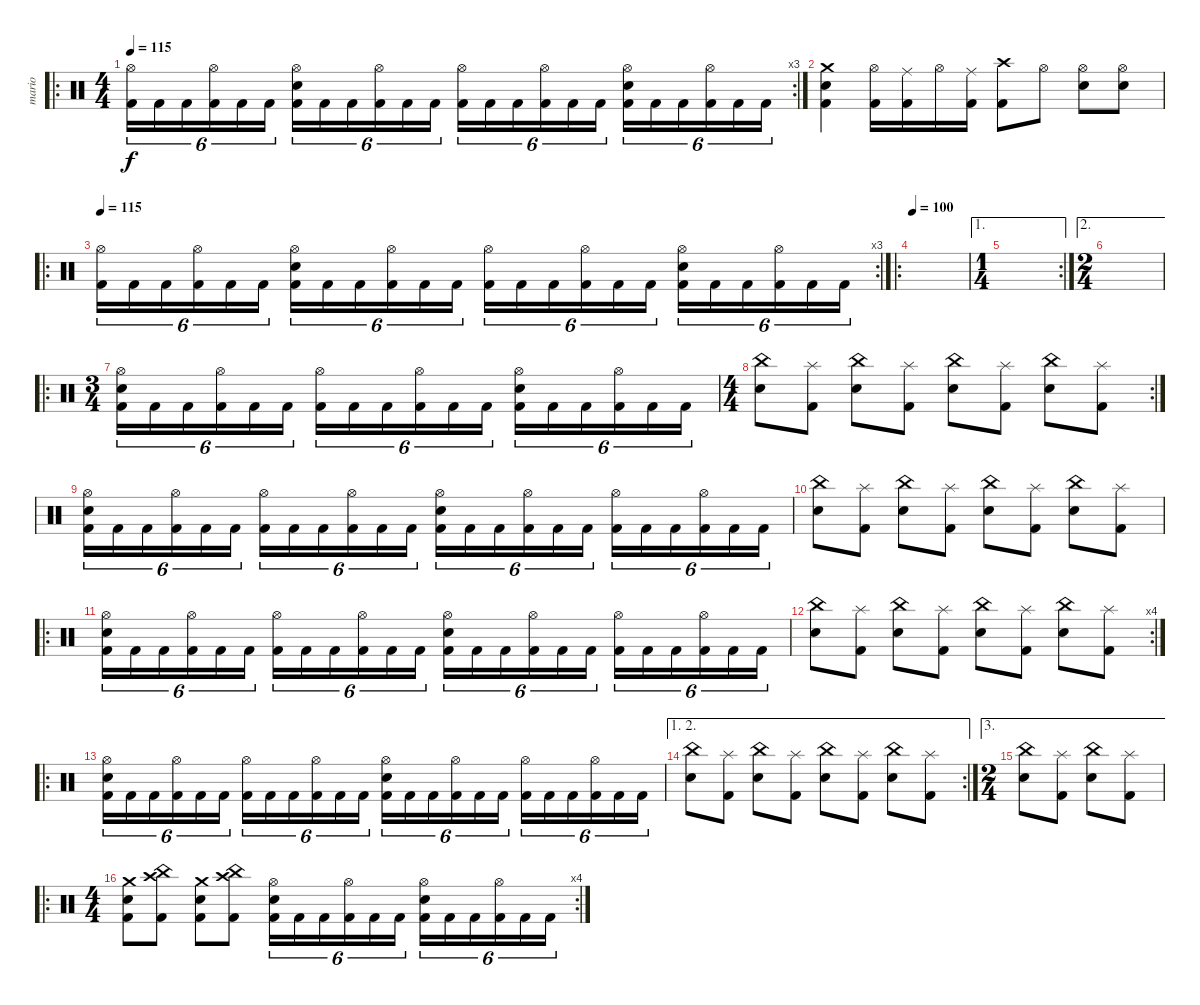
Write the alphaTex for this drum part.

\track ("mario" "mario") {instrument percussion}
\staff {score}
\articulation defaults
\ro
\rc 3
\ts (4 4)
\tempo 115
\clef neutral
\ks c
("Hi-Hat (open)" "Kick (hit) 2").16{tu (6 4) dy f volume 12} "Kick (hit) 2".16{tu (6 4)} "Kick (hit) 2".16{tu (6 4)} ("Hi-Hat (open)" "Kick (hit) 2").16{tu (6 4)} "Kick (hit) 2".16{tu (6 4)} "Kick (hit) 2".16{tu (6 4)} ("Hi-Hat (open)" "Electric Snare (hit)" "Kick (hit) 2").16{tu (6 4)} "Kick (hit) 2".16{tu (6 4)} "Kick (hit) 2".16{tu (6 4)} ("Hi-Hat (open)" "Kick (hit) 2").16{tu (6 4)} "Kick (hit) 2".16{tu (6 4)} "Kick (hit) 2".16{tu (6 4)} ("Hi-Hat (open)" "Kick (hit) 2").16{tu (6 4)} "Kick (hit) 2".16{tu (6 4)} "Kick (hit) 2".16{tu (6 4)} ("Hi-Hat (open)" "Kick (hit) 2").16{tu (6 4)} "Kick (hit) 2".16{tu (6 4)} "Kick (hit) 2".16{tu (6 4)} ("Hi-Hat (open)" "Electric Snare (hit)" "Kick (hit) 2").16{tu (6 4)} "Kick (hit) 2".16{tu (6 4)} "Kick (hit) 2".16{tu (6 4)} ("Hi-Hat (open)" "Kick (hit) 2").16{tu (6 4)} "Kick (hit) 2".16{tu (6 4)} "Kick (hit) 2".16{tu (6 4)} |
("Crash medium (hit)" "Electric Snare (hit)" "Kick (hit) 2").4 ("Hi-Hat (open)" "Kick (hit) 2").16 ("Ride (middle)" "Kick (hit) 2").16 "Hi-Hat (open)".16 ("Ride (middle)" "Kick (hit) 2").16 ("Crash high (hit)" "Kick (hit) 2").8 "Hi-Hat (open)".8 ("Hi-Hat (open)" "Electric Snare (hit)").8 ("Hi-Hat (open)" "Electric Snare (hit)").8 |
\ro
\rc 3
\tempo 115
("Hi-Hat (open)" "Kick (hit) 2").16{tu (6 4) volume 12} "Kick (hit) 2".16{tu (6 4)} "Kick (hit) 2".16{tu (6 4)} ("Hi-Hat (open)" "Kick (hit) 2").16{tu (6 4)} "Kick (hit) 2".16{tu (6 4)} "Kick (hit) 2".16{tu (6 4)} ("Hi-Hat (open)" "Electric Snare (hit)" "Kick (hit) 2").16{tu (6 4)} "Kick (hit) 2".16{tu (6 4)} "Kick (hit) 2".16{tu (6 4)} ("Hi-Hat (open)" "Kick (hit) 2").16{tu (6 4)} "Kick (hit) 2".16{tu (6 4)} "Kick (hit) 2".16{tu (6 4)} ("Hi-Hat (open)" "Kick (hit) 2").16{tu (6 4)} "Kick (hit) 2".16{tu (6 4)} "Kick (hit) 2".16{tu (6 4)} ("Hi-Hat (open)" "Kick (hit) 2").16{tu (6 4)} "Kick (hit) 2".16{tu (6 4)} "Kick (hit) 2".16{tu (6 4)} ("Hi-Hat (open)" "Electric Snare (hit)" "Kick (hit) 2").16{tu (6 4)} "Kick (hit) 2".16{tu (6 4)} "Kick (hit) 2".16{tu (6 4)} ("Hi-Hat (open)" "Kick (hit) 2").16{tu (6 4)} "Kick (hit) 2".16{tu (6 4)} "Kick (hit) 2".16{tu (6 4)} |
\ro
\tempo 100
|
\ae 1
\rc 2
\ts (1 4)
|
\ae 2
\ts (2 4)
|
\ro
\ts (3 4)
("Hi-Hat (open)" "Electric Snare (hit)" "Kick (hit) 2").16{tu (6 4)} "Kick (hit) 2".16{tu (6 4)} "Kick (hit) 2".16{tu (6 4)} ("Hi-Hat (open)" "Kick (hit) 2").16{tu (6 4)} "Kick (hit) 2".16{tu (6 4)} "Kick (hit) 2".16{tu (6 4)} ("Hi-Hat (open)" "Kick (hit) 2").16{tu (6 4)} "Kick (hit) 2".16{tu (6 4)} "Kick (hit) 2".16{tu (6 4)} ("Hi-Hat (open)" "Kick (hit) 2").16{tu (6 4)} "Kick (hit) 2".16{tu (6 4)} "Kick (hit) 2".16{tu (6 4)} ("Hi-Hat (open)" "Electric Snare (hit)" "Kick (hit) 2").16{tu (6 4)} "Kick (hit) 2".16{tu (6 4)} "Kick (hit) 2".16{tu (6 4)} ("Hi-Hat (open)" "Kick (hit) 2").16{tu (6 4)} "Kick (hit) 2".16{tu (6 4)} "Kick (hit) 2".16{tu (6 4)} |
\rc 2
\ts (4 4)
("China (hit)" "Electric Snare (hit)").8 ("Splash (hit)" "Kick (hit) 2").8 ("China (hit)" "Electric Snare (hit)").8 ("Splash (hit)" "Kick (hit) 2").8 ("China (hit)" "Electric Snare (hit)").8 ("Splash (hit)" "Kick (hit) 2").8 ("China (hit)" "Electric Snare (hit)").8 ("Splash (hit)" "Kick (hit) 2").8 |
("Hi-Hat (open)" "Electric Snare (hit)" "Kick (hit) 2").16{tu (6 4)} "Kick (hit) 2".16{tu (6 4)} "Kick (hit) 2".16{tu (6 4)} ("Hi-Hat (open)" "Kick (hit) 2").16{tu (6 4)} "Kick (hit) 2".16{tu (6 4)} "Kick (hit) 2".16{tu (6 4)} ("Hi-Hat (open)" "Kick (hit) 2").16{tu (6 4)} "Kick (hit) 2".16{tu (6 4)} "Kick (hit) 2".16{tu (6 4)} ("Hi-Hat (open)" "Kick (hit) 2").16{tu (6 4)} "Kick (hit) 2".16{tu (6 4)} "Kick (hit) 2".16{tu (6 4)} ("Hi-Hat (open)" "Electric Snare (hit)" "Kick (hit) 2").16{tu (6 4)} "Kick (hit) 2".16{tu (6 4)} "Kick (hit) 2".16{tu (6 4)} ("Hi-Hat (open)" "Kick (hit) 2").16{tu (6 4)} "Kick (hit) 2".16{tu (6 4)} "Kick (hit) 2".16{tu (6 4)} ("Hi-Hat (open)" "Kick (hit) 2").16{tu (6 4)} "Kick (hit) 2".16{tu (6 4)} "Kick (hit) 2".16{tu (6 4)} ("Hi-Hat (open)" "Kick (hit) 2").16{tu (6 4)} "Kick (hit) 2".16{tu (6 4)} "Kick (hit) 2".16{tu (6 4)} |
("China (hit)" "Electric Snare (hit)").8 ("Splash (hit)" "Kick (hit) 2").8 ("China (hit)" "Electric Snare (hit)").8 ("Splash (hit)" "Kick (hit) 2").8 ("China (hit)" "Electric Snare (hit)").8 ("Splash (hit)" "Kick (hit) 2").8 ("China (hit)" "Electric Snare (hit)").8 ("Splash (hit)" "Kick (hit) 2").8 |
\ro
("Hi-Hat (open)" "Electric Snare (hit)" "Kick (hit) 2").16{tu (6 4)} "Kick (hit) 2".16{tu (6 4)} "Kick (hit) 2".16{tu (6 4)} ("Hi-Hat (open)" "Kick (hit) 2").16{tu (6 4)} "Kick (hit) 2".16{tu (6 4)} "Kick (hit) 2".16{tu (6 4)} ("Hi-Hat (open)" "Kick (hit) 2").16{tu (6 4)} "Kick (hit) 2".16{tu (6 4)} "Kick (hit) 2".16{tu (6 4)} ("Hi-Hat (open)" "Kick (hit) 2").16{tu (6 4)} "Kick (hit) 2".16{tu (6 4)} "Kick (hit) 2".16{tu (6 4)} ("Hi-Hat (open)" "Electric Snare (hit)" "Kick (hit) 2").16{tu (6 4)} "Kick (hit) 2".16{tu (6 4)} "Kick (hit) 2".16{tu (6 4)} ("Hi-Hat (open)" "Kick (hit) 2").16{tu (6 4)} "Kick (hit) 2".16{tu (6 4)} "Kick (hit) 2".16{tu (6 4)} ("Hi-Hat (open)" "Kick (hit) 2").16{tu (6 4)} "Kick (hit) 2".16{tu (6 4)} "Kick (hit) 2".16{tu (6 4)} ("Hi-Hat (open)" "Kick (hit) 2").16{tu (6 4)} "Kick (hit) 2".16{tu (6 4)} "Kick (hit) 2".16{tu (6 4)} |
\rc 4
("China (hit)" "Electric Snare (hit)").8 ("Splash (hit)" "Kick (hit) 2").8 ("China (hit)" "Electric Snare (hit)").8 ("Splash (hit)" "Kick (hit) 2").8 ("China (hit)" "Electric Snare (hit)").8 ("Splash (hit)" "Kick (hit) 2").8 ("China (hit)" "Electric Snare (hit)").8 ("Splash (hit)" "Kick (hit) 2").8 |
\ro
("Hi-Hat (open)" "Electric Snare (hit)" "Kick (hit) 2").16{tu (6 4)} "Kick (hit) 2".16{tu (6 4)} "Kick (hit) 2".16{tu (6 4)} ("Hi-Hat (open)" "Kick (hit) 2").16{tu (6 4)} "Kick (hit) 2".16{tu (6 4)} "Kick (hit) 2".16{tu (6 4)} ("Hi-Hat (open)" "Kick (hit) 2").16{tu (6 4)} "Kick (hit) 2".16{tu (6 4)} "Kick (hit) 2".16{tu (6 4)} ("Hi-Hat (open)" "Kick (hit) 2").16{tu (6 4)} "Kick (hit) 2".16{tu (6 4)} "Kick (hit) 2".16{tu (6 4)} ("Hi-Hat (open)" "Electric Snare (hit)" "Kick (hit) 2").16{tu (6 4)} "Kick (hit) 2".16{tu (6 4)} "Kick (hit) 2".16{tu (6 4)} ("Hi-Hat (open)" "Kick (hit) 2").16{tu (6 4)} "Kick (hit) 2".16{tu (6 4)} "Kick (hit) 2".16{tu (6 4)} ("Hi-Hat (open)" "Kick (hit) 2").16{tu (6 4)} "Kick (hit) 2".16{tu (6 4)} "Kick (hit) 2".16{tu (6 4)} ("Hi-Hat (open)" "Kick (hit) 2").16{tu (6 4)} "Kick (hit) 2".16{tu (6 4)} "Kick (hit) 2".16{tu (6 4)} |
\ae (1 2)
\rc 2
("China (hit)" "Electric Snare (hit)").8 ("Splash (hit)" "Kick (hit) 2").8 ("China (hit)" "Electric Snare (hit)").8 ("Splash (hit)" "Kick (hit) 2").8 ("China (hit)" "Electric Snare (hit)").8 ("Splash (hit)" "Kick (hit) 2").8 ("China (hit)" "Electric Snare (hit)").8 ("Splash (hit)" "Kick (hit) 2").8 |
\ae 3
\ts (2 4)
("China (hit)" "Electric Snare (hit)").8 ("Splash (hit)" "Kick (hit) 2").8 ("China (hit)" "Electric Snare (hit)").8 ("Splash (hit)" "Kick (hit) 2").8 |
\ro
\rc 4
\ts (4 4)
("Crash medium (hit)" "Electric Snare (hit)" "Kick (hit) 2").8 ("Crash high (hit)" "China (hit)" "Kick (hit) 2").8 ("Crash medium (hit)" "Electric Snare (hit)" "Kick (hit) 2").8 ("Crash high (hit)" "China (hit)" "Kick (hit) 2").8 ("Hi-Hat (open)" "Electric Snare (hit)" "Kick (hit) 2").16{tu (6 4)} "Kick (hit) 2".16{tu (6 4)} "Kick (hit) 2".16{tu (6 4)} ("Hi-Hat (open)" "Kick (hit) 2").16{tu (6 4)} "Kick (hit) 2".16{tu (6 4)} "Kick (hit) 2".16{tu (6 4)} ("Hi-Hat (open)" "Electric Snare (hit)" "Kick (hit) 2").16{tu (6 4)} "Kick (hit) 2".16{tu (6 4)} "Kick (hit) 2".16{tu (6 4)} ("Hi-Hat (open)" "Kick (hit) 2").16{tu (6 4)} "Kick (hit) 2".16{tu (6 4)} "Kick (hit) 2".16{tu (6 4)}
